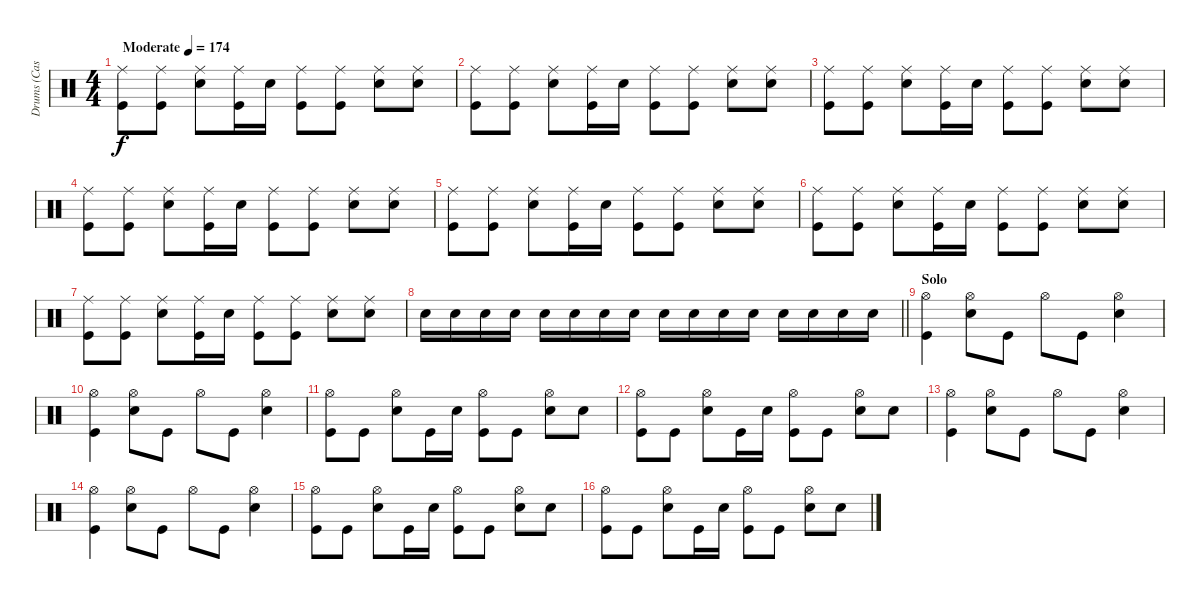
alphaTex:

\track ("Drums (Casey Royer)" "Drums (Cas") {instrument percussion}
\staff {score}
\articulation defaults
\ts (4 4)
\tempo (174 "Moderate")
\clef neutral
\ks c
("Ride (middle)" "Kick (hit)").8{dy f} ("Ride (middle)" "Kick (hit)").8 ("Ride (middle)" "Snare (hit) 2").8 ("Ride (middle)" "Kick (hit)").16 "Snare (hit) 2".16 ("Ride (middle)" "Kick (hit)").8 ("Ride (middle)" "Kick (hit)").8 ("Ride (middle)" "Snare (hit) 2").8 ("Ride (middle)" "Snare (hit) 2").8 |
("Ride (middle)" "Kick (hit)").8 ("Ride (middle)" "Kick (hit)").8 ("Ride (middle)" "Snare (hit) 2").8 ("Ride (middle)" "Kick (hit)").16 "Snare (hit) 2".16 ("Ride (middle)" "Kick (hit)").8 ("Ride (middle)" "Kick (hit)").8 ("Ride (middle)" "Snare (hit) 2").8 ("Ride (middle)" "Snare (hit) 2").8 |
("Ride (middle)" "Kick (hit)").8 ("Ride (middle)" "Kick (hit)").8 ("Ride (middle)" "Snare (hit) 2").8 ("Ride (middle)" "Kick (hit)").16 "Snare (hit) 2".16 ("Ride (middle)" "Kick (hit)").8 ("Ride (middle)" "Kick (hit)").8 ("Ride (middle)" "Snare (hit) 2").8 ("Ride (middle)" "Snare (hit) 2").8 |
("Ride (middle)" "Kick (hit)").8 ("Ride (middle)" "Kick (hit)").8 ("Ride (middle)" "Snare (hit) 2").8 ("Ride (middle)" "Kick (hit)").16 "Snare (hit) 2".16 ("Ride (middle)" "Kick (hit)").8 ("Ride (middle)" "Kick (hit)").8 ("Ride (middle)" "Snare (hit) 2").8 ("Ride (middle)" "Snare (hit) 2").8 |
("Ride (middle)" "Kick (hit)").8 ("Ride (middle)" "Kick (hit)").8 ("Ride (middle)" "Snare (hit) 2").8 ("Ride (middle)" "Kick (hit)").16 "Snare (hit) 2".16 ("Ride (middle)" "Kick (hit)").8 ("Ride (middle)" "Kick (hit)").8 ("Ride (middle)" "Snare (hit) 2").8 ("Ride (middle)" "Snare (hit) 2").8 |
("Ride (middle)" "Kick (hit)").8 ("Ride (middle)" "Kick (hit)").8 ("Ride (middle)" "Snare (hit) 2").8 ("Ride (middle)" "Kick (hit)").16 "Snare (hit) 2".16 ("Ride (middle)" "Kick (hit)").8 ("Ride (middle)" "Kick (hit)").8 ("Ride (middle)" "Snare (hit) 2").8 ("Ride (middle)" "Snare (hit) 2").8 |
("Ride (middle)" "Kick (hit)").8 ("Ride (middle)" "Kick (hit)").8 ("Ride (middle)" "Snare (hit) 2").8 ("Ride (middle)" "Kick (hit)").16 "Snare (hit) 2".16 ("Ride (middle)" "Kick (hit)").8 ("Ride (middle)" "Kick (hit)").8 ("Ride (middle)" "Snare (hit) 2").8 ("Ride (middle)" "Snare (hit) 2").8 |
\barLineRight lightlight "Snare (hit) 2".16 "Snare (hit) 2".16 "Snare (hit) 2".16 "Snare (hit) 2".16 "Snare (hit) 2".16 "Snare (hit) 2".16 "Snare (hit) 2".16 "Snare (hit) 2".16 "Snare (hit) 2".16 "Snare (hit) 2".16 "Snare (hit) 2".16 "Snare (hit) 2".16 "Snare (hit) 2".16 "Snare (hit) 2".16 "Snare (hit) 2".16 "Snare (hit) 2".16
|
\section ("" "Solo")
("Hi-Hat (open)" "Kick (hit)").4 ("Hi-Hat (open)" "Snare (hit) 2").8 "Kick (hit)".8 "Hi-Hat (open)".8 "Kick (hit)".8 ("Hi-Hat (open)" "Snare (hit) 2").4 |
("Hi-Hat (open)" "Kick (hit)").4 ("Hi-Hat (open)" "Snare (hit) 2").8 "Kick (hit)".8 "Hi-Hat (open)".8 "Kick (hit)".8 ("Hi-Hat (open)" "Snare (hit) 2").4 |
("Hi-Hat (open)" "Kick (hit)").8 "Kick (hit)".8 ("Hi-Hat (open)" "Snare (hit) 2").8 "Kick (hit)".16 "Snare (hit) 2".16 ("Hi-Hat (open)" "Kick (hit)").8 "Kick (hit)".8 ("Hi-Hat (open)" "Snare (hit) 2").8 "Snare (hit) 2".8 |
("Hi-Hat (open)" "Kick (hit)").8 "Kick (hit)".8 ("Hi-Hat (open)" "Snare (hit) 2").8 "Kick (hit)".16 "Snare (hit) 2".16 ("Hi-Hat (open)" "Kick (hit)").8 "Kick (hit)".8 ("Hi-Hat (open)" "Snare (hit) 2").8 "Snare (hit) 2".8 |
("Hi-Hat (open)" "Kick (hit)").4 ("Hi-Hat (open)" "Snare (hit) 2").8 "Kick (hit)".8 "Hi-Hat (open)".8 "Kick (hit)".8 ("Hi-Hat (open)" "Snare (hit) 2").4 |
("Hi-Hat (open)" "Kick (hit)").4 ("Hi-Hat (open)" "Snare (hit) 2").8 "Kick (hit)".8 "Hi-Hat (open)".8 "Kick (hit)".8 ("Hi-Hat (open)" "Snare (hit) 2").4 |
("Hi-Hat (open)" "Kick (hit)").8 "Kick (hit)".8 ("Hi-Hat (open)" "Snare (hit) 2").8 "Kick (hit)".16 "Snare (hit) 2".16 ("Hi-Hat (open)" "Kick (hit)").8 "Kick (hit)".8 ("Hi-Hat (open)" "Snare (hit) 2").8 "Snare (hit) 2".8 |
("Hi-Hat (open)" "Kick (hit)").8 "Kick (hit)".8 ("Hi-Hat (open)" "Snare (hit) 2").8 "Kick (hit)".16 "Snare (hit) 2".16 ("Hi-Hat (open)" "Kick (hit)").8 "Kick (hit)".8 ("Hi-Hat (open)" "Snare (hit) 2").8 "Snare (hit) 2".8
